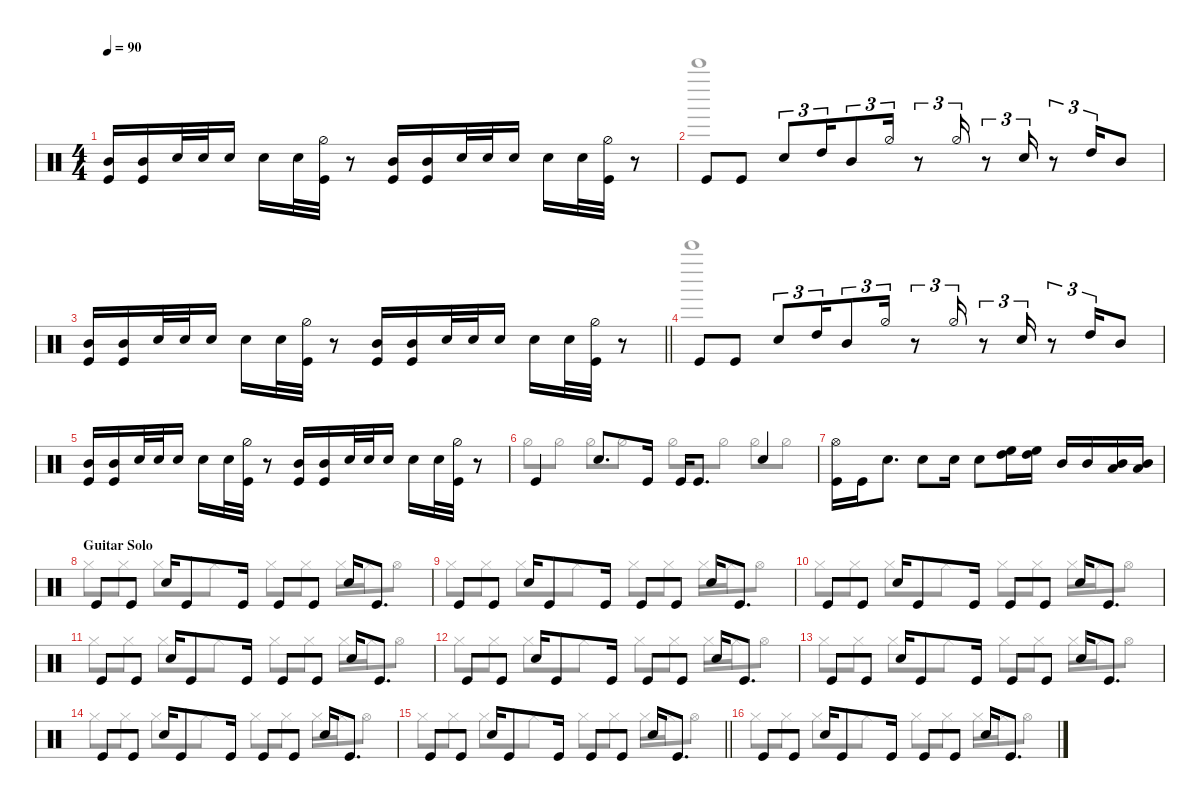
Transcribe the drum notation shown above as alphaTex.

\defaultSystemsLayout 4
\hideDynamics
\bracketExtendMode nobrackets
\singleTrackTrackNamePolicy hidden
\multiTrackTrackNamePolicy hidden
\otherSystemsTrackNameOrientation horizontal
\track ("Drumkit" "drm.") {instrument percussion}
\staff {score}
\articulation defaults
\voice
\ts (4 4)
\tempo 90
\clef neutral
\ks c
("Mid Tom (hit)" "Kick (hit)").16{dy mf beam Up} ("Mid Tom (hit)" "Kick (hit)").16{beam Up} "Snare (hit) 2".32{beam Up} "Snare (hit) 2".32{beam Up} "Snare (hit) 2".16{beam Up} "Snare (hit) 2".16{beam Down} "Snare (hit) 2".32{beam Down} ("Hi-Hat (half)" "Kick (hit)").32{dy fff beam Down} r.8{beam Down} ("Mid Tom (hit)" "Kick (hit)").16{dy mf beam Up} ("Mid Tom (hit)" "Kick (hit)").16{beam Up} "Snare (hit) 2".32{beam Up} "Snare (hit) 2".32{beam Up} "Snare (hit) 2".16{beam Up} "Snare (hit) 2".16{beam Down} "Snare (hit) 2".32{beam Down} ("Hi-Hat (half)" "Kick (hit)").32{dy fff beam Down} r.8{beam Down} |
"Kick (hit)".8{dy mf beam Up} "Kick (hit)".8{beam Up} "Snare (hit) 2".8{tu (3 2) beam Up} "High Tom (hit)".16{tu (3 2) beam Up beam merge} "Mid Tom (hit)".8{tu (3 2) beam Up beam merge} "Hi-Hat (half)".16{tu (3 2) beam Up beam split} r.8{tu (3 2) beam Up beam split} "Hi-Hat (half)".16{tu (3 2) beam Up} r.8{tu (3 2) beam Up} "Snare (hit) 2".16{tu (3 2) beam Up beam split} r.8{tu (3 2) beam Up beam merge} "High Tom (hit)".16{tu (3 2) beam Up beam merge} "Mid Tom (hit)".8{beam Up} |
\barLineRight lightlight
("Mid Tom (hit)" "Kick (hit)").16{beam Up} ("Mid Tom (hit)" "Kick (hit)").16{beam Up} "Snare (hit) 2".32{beam Up} "Snare (hit) 2".32{beam Up} "Snare (hit) 2".16{beam Up} "Snare (hit) 2".16{beam Down} "Snare (hit) 2".32{beam Down} ("Hi-Hat (half)" "Kick (hit)").32{dy fff beam Down} r.8{beam Down} ("Mid Tom (hit)" "Kick (hit)").16{dy mf beam Up} ("Mid Tom (hit)" "Kick (hit)").16{beam Up} "Snare (hit) 2".32{beam Up} "Snare (hit) 2".32{beam Up} "Snare (hit) 2".16{beam Up} "Snare (hit) 2".16{beam Down} "Snare (hit) 2".32{beam Down} ("Hi-Hat (half)" "Kick (hit)").32{dy fff beam Down} r.8{beam Down} |
"Kick (hit)".8{dy mf beam Up} "Kick (hit)".8{beam Up} "Snare (hit) 2".8{tu (3 2) beam Up} "High Tom (hit)".16{tu (3 2) beam Up beam merge} "Mid Tom (hit)".8{tu (3 2) beam Up beam merge} "Hi-Hat (half)".16{tu (3 2) beam Up beam split} r.8{tu (3 2) beam Up beam split} "Hi-Hat (half)".16{tu (3 2) beam Up} r.8{tu (3 2) beam Up} "Snare (hit) 2".16{tu (3 2) beam Up beam split} r.8{tu (3 2) beam Up beam merge} "High Tom (hit)".16{tu (3 2) beam Up beam merge} "Mid Tom (hit)".8{beam Up} |
("Mid Tom (hit)" "Kick (hit)").16{beam Up} ("Mid Tom (hit)" "Kick (hit)").16{beam Up} "Snare (hit) 2".32{beam Up} "Snare (hit) 2".32{beam Up} "Snare (hit) 2".16{beam Up} "Snare (hit) 2".16{beam Down} "Snare (hit) 2".32{beam Down} ("Hi-Hat (half)" "Kick (hit)").32{dy fff beam Down} r.8{beam Down} ("Mid Tom (hit)" "Kick (hit)").16{dy mf beam Up} ("Mid Tom (hit)" "Kick (hit)").16{beam Up} "Snare (hit) 2".32{beam Up} "Snare (hit) 2".32{beam Up} "Snare (hit) 2".16{beam Up} "Snare (hit) 2".16{beam Down} "Snare (hit) 2".32{beam Down} ("Hi-Hat (half)" "Kick (hit)").32{dy fff beam Down} r.8{beam Down} |
"Kick (hit)".4{dy f beam Up} "Snare (hit) 2".8{d beam Up} "Kick (hit)".16{beam Up} "Kick (hit)".16{beam Up} "Kick (hit)".8{d beam Up} "Snare (hit) 2".4{beam Up} |
("Kick (hit)" "Hi-Hat (open)").16{beam Down} "Kick (hit)".16{beam Down} "Snare (hit) 2".8{d beam Down} "Snare (hit) 2".8{beam Down} "Snare (hit) 2".16{beam Down} "Snare (hit) 2".8{beam Down} ("High Floor Tom (hit)" "High Tom (hit)").16{beam Down} ("High Floor Tom (hit)" "High Tom (hit)").16{beam Down} "Mid Tom (hit)".16{beam Up} "Mid Tom (hit)".16{beam Up} ("Mid Tom (hit)" "Low Tom (hit)").16{beam Up} ("Mid Tom (hit)" "Low Tom (hit)").16{beam Up} |
\section ("" "Guitar Solo")
"Kick (hit)".8{beam Up} "Kick (hit)".8{beam Up} "Snare (hit) 2".16{beam Up} "Kick (hit)".8{beam Up} "Kick (hit)".16{beam Up} "Kick (hit)".8{beam Up} "Kick (hit)".8{beam Up} "Snare (hit) 2".16{beam Up} "Kick (hit)".8{d beam Up} |
"Kick (hit)".8{beam Up} "Kick (hit)".8{beam Up} "Snare (hit) 2".16{beam Up} "Kick (hit)".8{beam Up} "Kick (hit)".16{beam Up} "Kick (hit)".8{beam Up} "Kick (hit)".8{beam Up} "Snare (hit) 2".16{beam Up} "Kick (hit)".8{d beam Up} |
"Kick (hit)".8{beam Up} "Kick (hit)".8{beam Up} "Snare (hit) 2".16{beam Up} "Kick (hit)".8{beam Up} "Kick (hit)".16{beam Up} "Kick (hit)".8{beam Up} "Kick (hit)".8{beam Up} "Snare (hit) 2".16{beam Up} "Kick (hit)".8{d beam Up} |
"Kick (hit)".8{beam Up} "Kick (hit)".8{beam Up} "Snare (hit) 2".16{beam Up} "Kick (hit)".8{beam Up} "Kick (hit)".16{beam Up} "Kick (hit)".8{beam Up} "Kick (hit)".8{beam Up} "Snare (hit) 2".16{beam Up} "Kick (hit)".8{d beam Up} |
"Kick (hit)".8{beam Up} "Kick (hit)".8{beam Up} "Snare (hit) 2".16{beam Up} "Kick (hit)".8{beam Up} "Kick (hit)".16{beam Up} "Kick (hit)".8{beam Up} "Kick (hit)".8{beam Up} "Snare (hit) 2".16{beam Up} "Kick (hit)".8{d beam Up} |
"Kick (hit)".8{beam Up} "Kick (hit)".8{beam Up} "Snare (hit) 2".16{beam Up} "Kick (hit)".8{beam Up} "Kick (hit)".16{beam Up} "Kick (hit)".8{beam Up} "Kick (hit)".8{beam Up} "Snare (hit) 2".16{beam Up} "Kick (hit)".8{d beam Up} |
"Kick (hit)".8{beam Up} "Kick (hit)".8{beam Up} "Snare (hit) 2".16{beam Up} "Kick (hit)".8{beam Up} "Kick (hit)".16{beam Up} "Kick (hit)".8{beam Up} "Kick (hit)".8{beam Up} "Snare (hit) 2".16{beam Up} "Kick (hit)".8{d beam Up} |
\barLineRight lightlight "Kick (hit)".8{beam Up} "Kick (hit)".8{beam Up} "Snare (hit) 2".16{beam Up} "Kick (hit)".8{beam Up} "Kick (hit)".16{beam Up} "Kick (hit)".8{beam Up} "Kick (hit)".8{beam Up} "Snare (hit) 2".16{beam Up} "Kick (hit)".8{d beam Up}
|
"Kick (hit)".8{beam Up} "Kick (hit)".8{beam Up} "Snare (hit) 2".16{beam Up} "Kick (hit)".8{beam Up} "Kick (hit)".16{beam Up} "Kick (hit)".8{beam Up} "Kick (hit)".8{beam Up} "Snare (hit) 2".16{beam Up} "Kick (hit)".8{d beam Up}
\voice
\clef neutral
\ottava regular
\simile none
\ks c
|
"Bell Tree (hit)".1{beam Down} |
\barLineRight lightlight
|
"Bell Tree (hit)".1{beam Down} |
|
"Hi-Hat (half)".8{dy f beam Down} "Hi-Hat (half)".8{beam Down} "Hi-Hat (half)".8{beam Down} "Hi-Hat (half)".8{beam Down} "Hi-Hat (half)".8{beam Down} "Hi-Hat (half)".8{beam Down} "Hi-Hat (half)".8{beam Down} "Hi-Hat (half)".8{beam Down} |
|
"Hi-Hat (closed)".8{beam Down} "Hi-Hat (closed)".8{beam Down} "Hi-Hat (closed)".8{beam Down} "Hi-Hat (closed)".8{beam Down} "Hi-Hat (closed)".8{beam Down} "Hi-Hat (closed)".8{beam Down} "Hi-Hat (closed)".16{beam Down} "Hi-Hat (closed)".16{beam Down} "Hi-Hat (open)".8{beam Down} |
"Hi-Hat (closed)".8{beam Down} "Hi-Hat (closed)".8{beam Down} "Hi-Hat (closed)".8{beam Down} "Hi-Hat (closed)".8{beam Down} "Hi-Hat (closed)".8{beam Down} "Hi-Hat (closed)".8{beam Down} "Hi-Hat (closed)".16{beam Down} "Hi-Hat (closed)".16{beam Down} "Hi-Hat (open)".8{beam Down} |
"Hi-Hat (closed)".8{beam Down} "Hi-Hat (closed)".8{beam Down} "Hi-Hat (closed)".8{beam Down} "Hi-Hat (closed)".8{beam Down} "Hi-Hat (closed)".8{beam Down} "Hi-Hat (closed)".8{beam Down} "Hi-Hat (closed)".16{beam Down} "Hi-Hat (closed)".16{beam Down} "Hi-Hat (open)".8{beam Down} |
"Hi-Hat (closed)".8{beam Down} "Hi-Hat (closed)".8{beam Down} "Hi-Hat (closed)".8{beam Down} "Hi-Hat (closed)".8{beam Down} "Hi-Hat (closed)".8{beam Down} "Hi-Hat (closed)".8{beam Down} "Hi-Hat (closed)".16{beam Down} "Hi-Hat (closed)".16{beam Down} "Hi-Hat (open)".8{beam Down} |
"Hi-Hat (closed)".8{beam Down} "Hi-Hat (closed)".8{beam Down} "Hi-Hat (closed)".8{beam Down} "Hi-Hat (closed)".8{beam Down} "Hi-Hat (closed)".8{beam Down} "Hi-Hat (closed)".8{beam Down} "Hi-Hat (closed)".16{beam Down} "Hi-Hat (closed)".16{beam Down} "Hi-Hat (open)".8{beam Down} |
"Hi-Hat (closed)".8{beam Down} "Hi-Hat (closed)".8{beam Down} "Hi-Hat (closed)".8{beam Down} "Hi-Hat (closed)".8{beam Down} "Hi-Hat (closed)".8{beam Down} "Hi-Hat (closed)".8{beam Down} "Hi-Hat (closed)".16{beam Down} "Hi-Hat (closed)".16{beam Down} "Hi-Hat (open)".8{beam Down} |
"Hi-Hat (closed)".8{beam Down} "Hi-Hat (closed)".8{beam Down} "Hi-Hat (closed)".8{beam Down} "Hi-Hat (closed)".8{beam Down} "Hi-Hat (closed)".8{beam Down} "Hi-Hat (closed)".8{beam Down} "Hi-Hat (closed)".16{beam Down} "Hi-Hat (closed)".16{beam Down} "Hi-Hat (open)".8{beam Down} |
\barLineRight lightlight "Hi-Hat (closed)".8{beam Down} "Hi-Hat (closed)".8{beam Down} "Hi-Hat (closed)".8{beam Down} "Hi-Hat (closed)".8{beam Down} "Hi-Hat (closed)".8{beam Down} "Hi-Hat (closed)".8{beam Down} "Hi-Hat (closed)".16{beam Down} "Hi-Hat (closed)".16{beam Down} "Hi-Hat (open)".8{beam Down}
|
"Hi-Hat (closed)".8{beam Down} "Hi-Hat (closed)".8{beam Down} "Hi-Hat (closed)".8{beam Down} "Hi-Hat (closed)".8{beam Down} "Hi-Hat (closed)".8{beam Down} "Hi-Hat (closed)".8{beam Down} "Hi-Hat (closed)".16{beam Down} "Hi-Hat (closed)".16{beam Down} "Hi-Hat (open)".8{beam Down}
